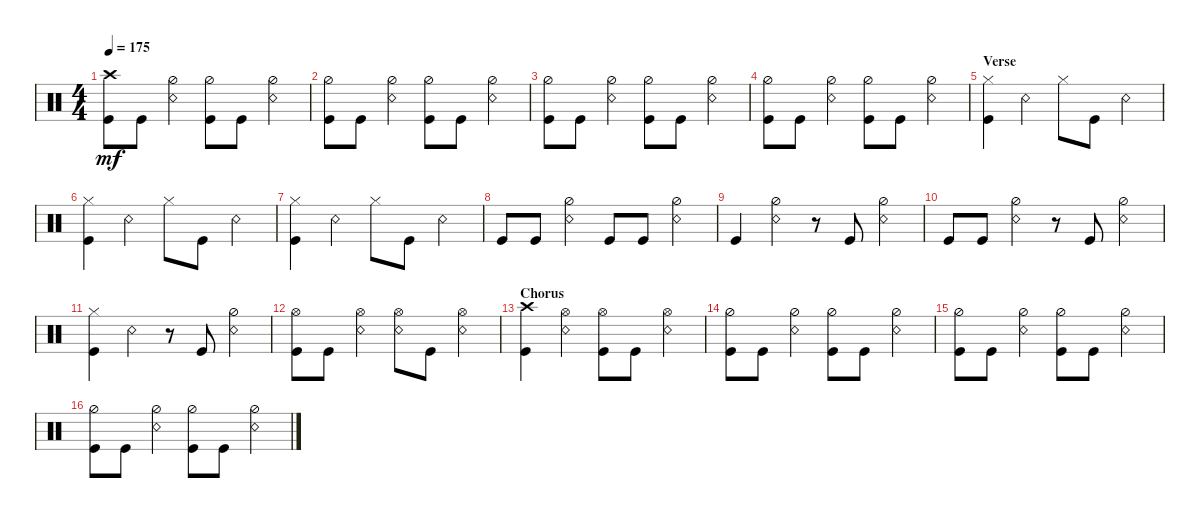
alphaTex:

\defaultSystemsLayout 4
\bracketExtendMode groupsimilarinstruments
\singleTrackTrackNamePolicy hidden
\multiTrackTrackNamePolicy hidden
\firstSystemTrackNameOrientation horizontal
\otherSystemsTrackNameOrientation horizontal
\track ("Drumkit" "Drums") {solo instrument percussion}
\staff {score}
\articulation defaults
\ts (4 4)
\tempo 175
\clef neutral
\ks c
("Kick (hit)" "Crash high (hit)").8{dy mf} "Kick (hit)".8 ("Snare (rim shot)" "Hi-Hat (half)").4 ("Kick (hit)" "Hi-Hat (half)").8 "Kick (hit)".8 ("Snare (rim shot)" "Hi-Hat (half)").4 |
("Kick (hit)" "Hi-Hat (half)").8 "Kick (hit)".8 ("Snare (rim shot)" "Hi-Hat (half)").4 ("Kick (hit)" "Hi-Hat (half)").8 "Kick (hit)".8 ("Snare (rim shot)" "Hi-Hat (half)").4 |
("Kick (hit)" "Hi-Hat (half)").8 "Kick (hit)".8 ("Snare (rim shot)" "Hi-Hat (half)").4 ("Kick (hit)" "Hi-Hat (half)").8 "Kick (hit)".8 ("Snare (rim shot)" "Hi-Hat (half)").4 |
("Kick (hit)" "Hi-Hat (half)").8 "Kick (hit)".8 ("Snare (rim shot)" "Hi-Hat (half)").4 ("Kick (hit)" "Hi-Hat (half)").8 "Kick (hit)".8 ("Snare (rim shot)" "Hi-Hat (half)").4 |
\section ("" "Verse")
("Kick (hit)" "Hi-Hat (closed)").4 "Snare (rim shot)".4 "Hi-Hat (closed)".8 "Kick (hit)".8 "Snare (rim shot)".4 |
("Kick (hit)" "Hi-Hat (closed)").4 "Snare (rim shot)".4 "Hi-Hat (closed)".8 "Kick (hit)".8 "Snare (rim shot)".4 |
("Kick (hit)" "Hi-Hat (closed)").4 "Snare (rim shot)".4 "Hi-Hat (closed)".8 "Kick (hit)".8 "Snare (rim shot)".4 |
"Kick (hit)".8 "Kick (hit)".8 ("Snare (rim shot)" "Hi-Hat (half)").4 "Kick (hit)".8 "Kick (hit)".8 ("Snare (rim shot)" "Hi-Hat (half)").4 |
"Kick (hit)".4 ("Snare (rim shot)" "Hi-Hat (half)").4 r.8 "Kick (hit)".8 ("Snare (rim shot)" "Hi-Hat (half)").4 |
"Kick (hit)".8 "Kick (hit)".8 ("Snare (rim shot)" "Hi-Hat (half)").4 r.8 "Kick (hit)".8 ("Snare (rim shot)" "Hi-Hat (half)").4 |
("Kick (hit)" "Hi-Hat (closed)").4 "Snare (rim shot)".4 r.8 "Kick (hit)".8 ("Snare (rim shot)" "Hi-Hat (half)").4 |
("Kick (hit)" "Hi-Hat (open)").8 "Kick (hit)".8 ("Snare (rim shot)" "Hi-Hat (open)").4 ("Snare (rim shot)" "Hi-Hat (open)").8 "Kick (hit)".8 ("Snare (rim shot)" "Hi-Hat (open)").4 |
\section ("" "Chorus")
("Kick (hit)" "Crash high (hit)").4 ("Snare (rim shot)" "Hi-Hat (open)").4 ("Kick (hit)" "Hi-Hat (open)").8 "Kick (hit)".8 ("Snare (rim shot)" "Hi-Hat (open)").4 |
("Kick (hit)" "Hi-Hat (half)").8 "Kick (hit)".8 ("Snare (rim shot)" "Hi-Hat (half)").4 ("Kick (hit)" "Hi-Hat (half)").8 "Kick (hit)".8 ("Snare (rim shot)" "Hi-Hat (half)").4 |
("Kick (hit)" "Hi-Hat (half)").8 "Kick (hit)".8 ("Snare (rim shot)" "Hi-Hat (half)").4 ("Kick (hit)" "Hi-Hat (half)").8 "Kick (hit)".8 ("Snare (rim shot)" "Hi-Hat (half)").4 |
("Kick (hit)" "Hi-Hat (half)").8 "Kick (hit)".8 ("Snare (rim shot)" "Hi-Hat (half)").4 ("Kick (hit)" "Hi-Hat (half)").8 "Kick (hit)".8 ("Snare (rim shot)" "Hi-Hat (half)").4
